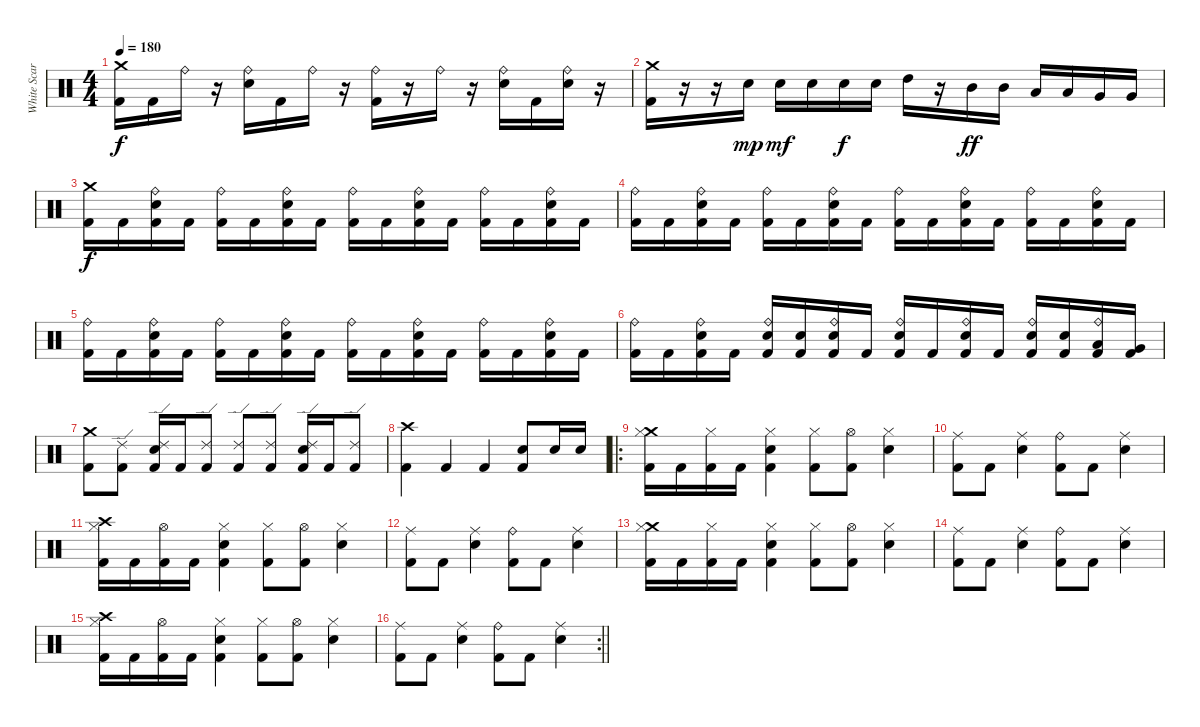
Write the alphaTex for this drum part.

\track ("White Scar" "White Scar") {instrument percussion}
\staff {score}
\articulation defaults
\ts (4 4)
\tempo 180
\clef neutral
\ks c
("Crash medium (hit)" "Kick (hit) 2").16{dy f} "Kick (hit) 2".16 "Ride (bell)".16 r.16 ("Ride (bell)" "Snare (hit) 2").16 "Kick (hit) 2".16 "Ride (bell)".16 r.16 ("Ride (bell)" "Kick (hit) 2").16 r.16 "Ride (bell)".16 r.16 ("Ride (bell)" "Snare (hit) 2").16 "Kick (hit) 2".16 ("Ride (bell)" "Snare (hit) 2").16 r.16 |
("Crash medium (hit)" "Kick (hit) 2").16 r.16 r.16 "Snare (hit) 2".16{dy mp} "Snare (hit) 2".16{dy mf} "Snare (hit) 2".16 "Snare (hit) 2".16{dy f} "Snare (hit) 2".16 "High Tom (hit)".16 r.16 "Mid Tom (hit)".16{dy ff} "Mid Tom (hit)".16 "Low Tom (hit)".16 "Low Tom (hit)".16 "Very Low Tom (hit)".16 "Very Low Tom (hit)".16 |
("Crash medium (hit)" "Kick (hit) 2").16{dy f} "Kick (hit) 2".16 ("Ride (bell)" "Snare (hit) 2" "Kick (hit) 2").16 "Kick (hit) 2".16 ("Ride (bell)" "Kick (hit) 2").16 "Kick (hit) 2".16 ("Ride (bell)" "Snare (hit) 2" "Kick (hit) 2").16 "Kick (hit) 2".16 ("Ride (bell)" "Kick (hit) 2").16 "Kick (hit) 2".16 ("Ride (bell)" "Snare (hit) 2" "Kick (hit) 2").16 "Kick (hit) 2".16 ("Ride (bell)" "Kick (hit) 2").16 "Kick (hit) 2".16 ("Ride (bell)" "Snare (hit) 2" "Kick (hit) 2").16 "Kick (hit) 2".16 |
("Ride (bell)" "Kick (hit) 2").16 "Kick (hit) 2".16 ("Ride (bell)" "Snare (hit) 2" "Kick (hit) 2").16 "Kick (hit) 2".16 ("Ride (bell)" "Kick (hit) 2").16 "Kick (hit) 2".16 ("Ride (bell)" "Snare (hit) 2" "Kick (hit) 2").16 "Kick (hit) 2".16 ("Ride (bell)" "Kick (hit) 2").16 "Kick (hit) 2".16 ("Ride (bell)" "Snare (hit) 2" "Kick (hit) 2").16 "Kick (hit) 2".16 ("Ride (bell)" "Kick (hit) 2").16 "Kick (hit) 2".16 ("Ride (bell)" "Snare (hit) 2" "Kick (hit) 2").16 "Kick (hit) 2".16 |
("Ride (bell)" "Kick (hit) 2").16 "Kick (hit) 2".16 ("Ride (bell)" "Snare (hit) 2" "Kick (hit) 2").16 "Kick (hit) 2".16 ("Ride (bell)" "Kick (hit) 2").16 "Kick (hit) 2".16 ("Ride (bell)" "Snare (hit) 2" "Kick (hit) 2").16 "Kick (hit) 2".16 ("Ride (bell)" "Kick (hit) 2").16 "Kick (hit) 2".16 ("Ride (bell)" "Snare (hit) 2" "Kick (hit) 2").16 "Kick (hit) 2".16 ("Ride (bell)" "Kick (hit) 2").16 "Kick (hit) 2".16 ("Ride (bell)" "Snare (hit) 2" "Kick (hit) 2").16 "Kick (hit) 2".16 |
("Ride (bell)" "Kick (hit) 2").16 "Kick (hit) 2".16 ("Ride (bell)" "Snare (hit) 2" "Kick (hit) 2").16 "Kick (hit) 2".16 ("Ride (bell)" "Snare (hit) 2" "Kick (hit) 2").16 ("Snare (hit) 2" "Kick (hit) 2").16 ("Ride (bell)" "Snare (hit) 2" "Kick (hit) 2").16 "Kick (hit) 2".16 ("Ride (bell)" "Snare (hit) 2" "Kick (hit) 2").16 "Kick (hit) 2".16 ("Ride (bell)" "Snare (hit) 2" "Kick (hit) 2").16 "Kick (hit) 2".16 ("Ride (bell)" "Snare (hit) 2" "Kick (hit) 2").16 ("Snare (hit) 2" "Kick (hit) 2").16 ("Ride (bell)" "Low Tom (hit)" "Kick (hit) 2").16 ("Very Low Tom (hit)" "Kick (hit) 2").16 |
("Crash medium (hit)" "Kick (hit) 2").8 ("Ride (edge) 2" "Kick (hit) 2").8 ("Snare (hit) 2" "Ride (edge) 2" "Kick (hit) 2").16 "Kick (hit) 2".16 ("Ride (edge) 2" "Kick (hit) 2").8 ("Ride (edge) 2" "Kick (hit) 2").8 ("Ride (edge) 2" "Kick (hit) 2").8 ("Snare (hit) 2" "Ride (edge) 2" "Kick (hit) 2").16 "Kick (hit) 2".16 ("Ride (edge) 2" "Kick (hit) 2").8 |
("Crash high (hit)" "Kick (hit) 2").4 "Kick (hit) 2".4 "Kick (hit) 2".4 ("Snare (hit) 2" "Kick (hit) 2").8 "Snare (hit) 2".16 "Snare (hit) 2".16 |
\ro
("Crash medium (hit)" "Hi-Hat (closed)" "Kick (hit) 2").16 "Kick (hit) 2".16 ("Hi-Hat (closed)" "Kick (hit) 2").16 "Kick (hit) 2".16 ("Hi-Hat (closed)" "Snare (hit) 2" "Kick (hit) 2").4 ("Hi-Hat (closed)" "Kick (hit) 2").8 ("Hi-Hat (open)" "Kick (hit) 2").8 ("Hi-Hat (closed)" "Snare (hit) 2").4 |
("Ride (middle)" "Kick (hit) 2").8 "Kick (hit) 2".8 ("Ride (middle)" "Snare (hit) 2").4 ("Ride (bell)" "Kick (hit) 2").8 "Kick (hit) 2".8 ("Ride (middle)" "Snare (hit) 2").4 |
("Crash high (hit)" "Hi-Hat (closed)" "Kick (hit) 2").16 "Kick (hit) 2".16 ("Hi-Hat (open)" "Kick (hit) 2").16 "Kick (hit) 2".16 ("Hi-Hat (closed)" "Snare (hit) 2" "Kick (hit) 2").4 ("Hi-Hat (closed)" "Kick (hit) 2").8 ("Hi-Hat (open)" "Kick (hit) 2").8 ("Hi-Hat (closed)" "Snare (hit) 2").4 |
("Ride (middle)" "Kick (hit) 2").8 "Kick (hit) 2".8 ("Ride (middle)" "Snare (hit) 2").4 ("Ride (bell)" "Kick (hit) 2").8 "Kick (hit) 2".8 ("Ride (middle)" "Snare (hit) 2").4 |
("Crash medium (hit)" "Hi-Hat (closed)" "Kick (hit) 2").16 "Kick (hit) 2".16 ("Hi-Hat (closed)" "Kick (hit) 2").16 "Kick (hit) 2".16 ("Hi-Hat (closed)" "Snare (hit) 2" "Kick (hit) 2").4 ("Hi-Hat (closed)" "Kick (hit) 2").8 ("Hi-Hat (open)" "Kick (hit) 2").8 ("Hi-Hat (closed)" "Snare (hit) 2").4 |
("Ride (middle)" "Kick (hit) 2").8 "Kick (hit) 2".8 ("Ride (middle)" "Snare (hit) 2").4 ("Ride (bell)" "Kick (hit) 2").8 "Kick (hit) 2".8 ("Ride (middle)" "Snare (hit) 2").4 |
("Crash high (hit)" "Hi-Hat (closed)" "Kick (hit) 2").16 "Kick (hit) 2".16 ("Hi-Hat (open)" "Kick (hit) 2").16 "Kick (hit) 2".16 ("Hi-Hat (closed)" "Snare (hit) 2" "Kick (hit) 2").4 ("Hi-Hat (closed)" "Kick (hit) 2").8 ("Hi-Hat (open)" "Kick (hit) 2").8 ("Hi-Hat (closed)" "Snare (hit) 2").4 |
\rc 2
\barLineRight lightlight
("Ride (middle)" "Kick (hit) 2").8 "Kick (hit) 2".8 ("Ride (middle)" "Snare (hit) 2").4 ("Ride (bell)" "Kick (hit) 2").8 "Kick (hit) 2".8 ("Ride (middle)" "Snare (hit) 2").4
